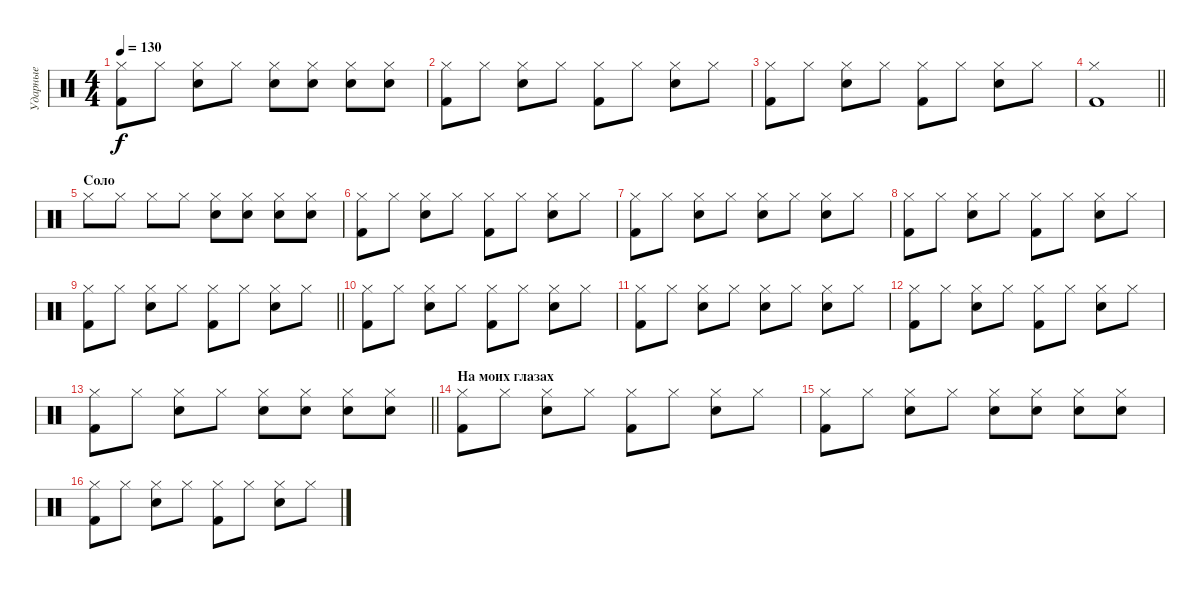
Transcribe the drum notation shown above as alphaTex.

\track ("Ударные" "Ударные") {instrument percussion}
\staff {score}
\articulation defaults
\ts (4 4)
\tempo 130
\clef neutral
\ks c
("Hi-Hat (closed)" "Kick (hit) 2").8{dy f} "Hi-Hat (closed)".8 ("Hi-Hat (closed)" "Snare (hit) 2").8 "Hi-Hat (closed)".8 ("Hi-Hat (closed)" "Snare (hit) 2").8 ("Hi-Hat (closed)" "Snare (hit) 2").8 ("Hi-Hat (closed)" "Snare (hit) 2").8 ("Hi-Hat (closed)" "Snare (hit) 2").8 |
("Hi-Hat (closed)" "Kick (hit) 2").8 "Hi-Hat (closed)".8 ("Hi-Hat (closed)" "Snare (hit) 2").8 "Hi-Hat (closed)".8 ("Hi-Hat (closed)" "Kick (hit) 2").8 "Hi-Hat (closed)".8 ("Hi-Hat (closed)" "Snare (hit) 2").8 "Hi-Hat (closed)".8 |
("Hi-Hat (closed)" "Kick (hit) 2").8 "Hi-Hat (closed)".8 ("Hi-Hat (closed)" "Snare (hit) 2").8 "Hi-Hat (closed)".8 ("Hi-Hat (closed)" "Kick (hit) 2").8 "Hi-Hat (closed)".8 ("Hi-Hat (closed)" "Snare (hit) 2").8 "Hi-Hat (closed)".8 |
\barLineRight lightlight
("Hi-Hat (closed)" "Kick (hit) 2").1 |
\section ("" "Соло")
"Hi-Hat (closed)".8 "Hi-Hat (closed)".8 "Hi-Hat (closed)".8 "Hi-Hat (closed)".8 ("Hi-Hat (closed)" "Snare (hit) 2").8 ("Hi-Hat (closed)" "Snare (hit) 2").8 ("Hi-Hat (closed)" "Snare (hit) 2").8 ("Hi-Hat (closed)" "Snare (hit) 2").8 |
("Hi-Hat (closed)" "Kick (hit) 2").8 "Hi-Hat (closed)".8 ("Hi-Hat (closed)" "Snare (hit) 2").8 "Hi-Hat (closed)".8 ("Hi-Hat (closed)" "Kick (hit) 2").8 "Hi-Hat (closed)".8 ("Hi-Hat (closed)" "Snare (hit) 2").8 "Hi-Hat (closed)".8 |
("Hi-Hat (closed)" "Kick (hit) 2").8 "Hi-Hat (closed)".8 ("Hi-Hat (closed)" "Snare (hit) 2").8 "Hi-Hat (closed)".8 ("Hi-Hat (closed)" "Snare (hit) 2").8 "Hi-Hat (closed)".8 ("Hi-Hat (closed)" "Snare (hit) 2").8 "Hi-Hat (closed)".8 |
("Hi-Hat (closed)" "Kick (hit) 2").8 "Hi-Hat (closed)".8 ("Hi-Hat (closed)" "Snare (hit) 2").8 "Hi-Hat (closed)".8 ("Hi-Hat (closed)" "Kick (hit) 2").8 "Hi-Hat (closed)".8 ("Hi-Hat (closed)" "Snare (hit) 2").8 "Hi-Hat (closed)".8 |
\barLineRight lightlight
("Hi-Hat (closed)" "Kick (hit) 2").8 "Hi-Hat (closed)".8 ("Hi-Hat (closed)" "Snare (hit) 2").8 "Hi-Hat (closed)".8 ("Hi-Hat (closed)" "Kick (hit) 2").8 "Hi-Hat (closed)".8 ("Hi-Hat (closed)" "Snare (hit) 2").8 "Hi-Hat (closed)".8 |
("Hi-Hat (closed)" "Kick (hit) 2").8 "Hi-Hat (closed)".8 ("Hi-Hat (closed)" "Snare (hit) 2").8 "Hi-Hat (closed)".8 ("Hi-Hat (closed)" "Kick (hit) 2").8 "Hi-Hat (closed)".8 ("Hi-Hat (closed)" "Snare (hit) 2").8 "Hi-Hat (closed)".8 |
("Hi-Hat (closed)" "Kick (hit) 2").8 "Hi-Hat (closed)".8 ("Hi-Hat (closed)" "Snare (hit) 2").8 "Hi-Hat (closed)".8 ("Hi-Hat (closed)" "Snare (hit) 2").8 "Hi-Hat (closed)".8 ("Hi-Hat (closed)" "Snare (hit) 2").8 "Hi-Hat (closed)".8 |
("Hi-Hat (closed)" "Kick (hit) 2").8 "Hi-Hat (closed)".8 ("Hi-Hat (closed)" "Snare (hit) 2").8 "Hi-Hat (closed)".8 ("Hi-Hat (closed)" "Kick (hit) 2").8 "Hi-Hat (closed)".8 ("Hi-Hat (closed)" "Snare (hit) 2").8 "Hi-Hat (closed)".8 |
\barLineRight lightlight
("Hi-Hat (closed)" "Kick (hit) 2").8 "Hi-Hat (closed)".8 ("Hi-Hat (closed)" "Snare (hit) 2").8 "Hi-Hat (closed)".8 ("Hi-Hat (closed)" "Snare (hit) 2").8 ("Hi-Hat (closed)" "Snare (hit) 2").8 ("Hi-Hat (closed)" "Snare (hit) 2").8 ("Hi-Hat (closed)" "Snare (hit) 2").8 |
\section ("" "На моих глазах")
("Hi-Hat (closed)" "Kick (hit) 2").8 "Hi-Hat (closed)".8 ("Hi-Hat (closed)" "Snare (hit) 2").8 "Hi-Hat (closed)".8 ("Hi-Hat (closed)" "Kick (hit) 2").8 "Hi-Hat (closed)".8 ("Hi-Hat (closed)" "Snare (hit) 2").8 "Hi-Hat (closed)".8 |
("Hi-Hat (closed)" "Kick (hit) 2").8 "Hi-Hat (closed)".8 ("Hi-Hat (closed)" "Snare (hit) 2").8 "Hi-Hat (closed)".8 ("Hi-Hat (closed)" "Snare (hit) 2").8 ("Hi-Hat (closed)" "Snare (hit) 2").8 ("Hi-Hat (closed)" "Snare (hit) 2").8 ("Hi-Hat (closed)" "Snare (hit) 2").8 |
("Hi-Hat (closed)" "Kick (hit) 2").8 "Hi-Hat (closed)".8 ("Hi-Hat (closed)" "Snare (hit) 2").8 "Hi-Hat (closed)".8 ("Hi-Hat (closed)" "Kick (hit) 2").8 "Hi-Hat (closed)".8 ("Hi-Hat (closed)" "Snare (hit) 2").8 "Hi-Hat (closed)".8
